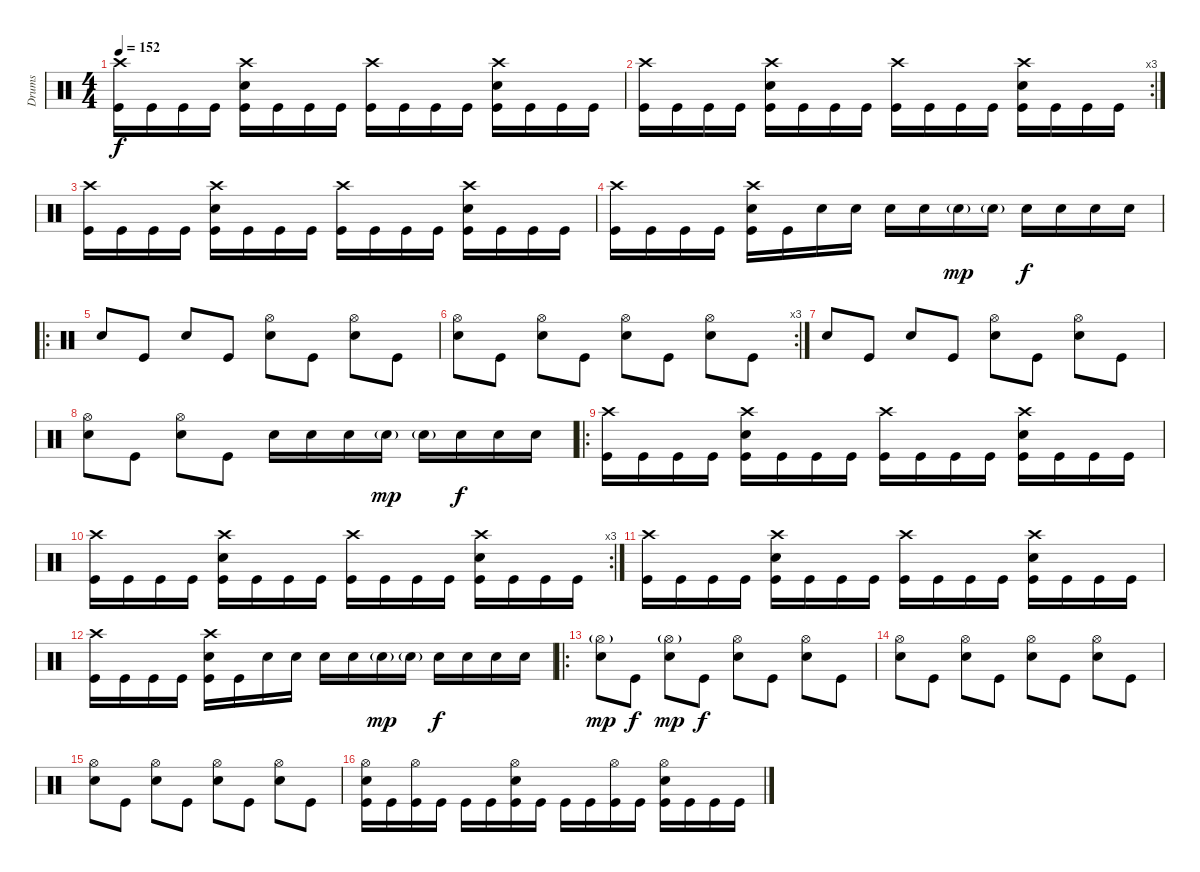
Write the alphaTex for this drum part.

\track ("Drums" "Drums") {instrument percussion}
\staff {score}
\articulation defaults
\ts (4 4)
\tempo 152
\clef neutral
\ks c
("Crash high (hit)" "Kick (hit)").16{dy f} "Kick (hit)".16 "Kick (hit)".16 "Kick (hit)".16 ("Crash high (hit)" "Electric Snare (hit)" "Kick (hit)").16 "Kick (hit)".16 "Kick (hit)".16 "Kick (hit)".16 ("Crash high (hit)" "Kick (hit)").16 "Kick (hit)".16 "Kick (hit)".16 "Kick (hit)".16 ("Crash high (hit)" "Electric Snare (hit)" "Kick (hit)").16 "Kick (hit)".16 "Kick (hit)".16 "Kick (hit)".16 |
\rc 3
("Crash high (hit)" "Kick (hit)").16 "Kick (hit)".16 "Kick (hit)".16 "Kick (hit)".16 ("Crash high (hit)" "Electric Snare (hit)" "Kick (hit)").16 "Kick (hit)".16 "Kick (hit)".16 "Kick (hit)".16 ("Crash high (hit)" "Kick (hit)").16 "Kick (hit)".16 "Kick (hit)".16 "Kick (hit)".16 ("Crash high (hit)" "Electric Snare (hit)" "Kick (hit)").16 "Kick (hit)".16 "Kick (hit)".16 "Kick (hit)".16 |
("Crash high (hit)" "Kick (hit)").16 "Kick (hit)".16 "Kick (hit)".16 "Kick (hit)".16 ("Crash high (hit)" "Electric Snare (hit)" "Kick (hit)").16 "Kick (hit)".16 "Kick (hit)".16 "Kick (hit)".16 ("Crash high (hit)" "Kick (hit)").16 "Kick (hit)".16 "Kick (hit)".16 "Kick (hit)".16 ("Crash high (hit)" "Electric Snare (hit)" "Kick (hit)").16 "Kick (hit)".16 "Kick (hit)".16 "Kick (hit)".16 |
("Crash high (hit)" "Kick (hit)").16 "Kick (hit)".16 "Kick (hit)".16 "Kick (hit)".16 ("Crash high (hit)" "Electric Snare (hit)" "Kick (hit)").16 "Kick (hit)".16 "Electric Snare (hit)".16 "Electric Snare (hit)".16 "Electric Snare (hit)".16 "Electric Snare (hit)".16 "Electric Snare (hit)"{g}.16{dy mp} "Electric Snare (hit)"{g}.16 "Electric Snare (hit)".16{dy f} "Electric Snare (hit)".16 "Electric Snare (hit)".16 "Electric Snare (hit)".16 |
\ro "Electric Snare (hit)".8 "Kick (hit)".8 "Electric Snare (hit)".8 "Kick (hit)".8
("Hi-Hat (open)" "Electric Snare (hit)").8 "Kick (hit)".8 ("Hi-Hat (open)" "Electric Snare (hit)").8 "Kick (hit)".8 |
\rc 3
("Hi-Hat (open)" "Electric Snare (hit)").8 "Kick (hit)".8 ("Hi-Hat (open)" "Electric Snare (hit)").8 "Kick (hit)".8 ("Hi-Hat (open)" "Electric Snare (hit)").8 "Kick (hit)".8 ("Hi-Hat (open)" "Electric Snare (hit)").8 "Kick (hit)".8 |
"Electric Snare (hit)".8 "Kick (hit)".8 "Electric Snare (hit)".8 "Kick (hit)".8 ("Hi-Hat (open)" "Electric Snare (hit)").8 "Kick (hit)".8 ("Hi-Hat (open)" "Electric Snare (hit)").8 "Kick (hit)".8 |
("Hi-Hat (open)" "Electric Snare (hit)").8 "Kick (hit)".8 ("Hi-Hat (open)" "Electric Snare (hit)").8 "Kick (hit)".8 "Electric Snare (hit)".16 "Electric Snare (hit)".16 "Electric Snare (hit)".16 "Electric Snare (hit)"{g}.16{dy mp} "Electric Snare (hit)"{g}.16 "Electric Snare (hit)".16{dy f} "Electric Snare (hit)".16 "Electric Snare (hit)".16 |
\ro
("Crash high (hit)" "Kick (hit)").16 "Kick (hit)".16 "Kick (hit)".16 "Kick (hit)".16 ("Crash high (hit)" "Electric Snare (hit)" "Kick (hit)").16 "Kick (hit)".16 "Kick (hit)".16 "Kick (hit)".16 ("Crash high (hit)" "Kick (hit)").16 "Kick (hit)".16 "Kick (hit)".16 "Kick (hit)".16 ("Crash high (hit)" "Electric Snare (hit)" "Kick (hit)").16 "Kick (hit)".16 "Kick (hit)".16 "Kick (hit)".16 |
\rc 3
("Crash high (hit)" "Kick (hit)").16 "Kick (hit)".16 "Kick (hit)".16 "Kick (hit)".16 ("Crash high (hit)" "Electric Snare (hit)" "Kick (hit)").16 "Kick (hit)".16 "Kick (hit)".16 "Kick (hit)".16 ("Crash high (hit)" "Kick (hit)").16 "Kick (hit)".16 "Kick (hit)".16 "Kick (hit)".16 ("Crash high (hit)" "Electric Snare (hit)" "Kick (hit)").16 "Kick (hit)".16 "Kick (hit)".16 "Kick (hit)".16 |
("Crash high (hit)" "Kick (hit)").16 "Kick (hit)".16 "Kick (hit)".16 "Kick (hit)".16 ("Crash high (hit)" "Electric Snare (hit)" "Kick (hit)").16 "Kick (hit)".16 "Kick (hit)".16 "Kick (hit)".16 ("Crash high (hit)" "Kick (hit)").16 "Kick (hit)".16 "Kick (hit)".16 "Kick (hit)".16 ("Crash high (hit)" "Electric Snare (hit)" "Kick (hit)").16 "Kick (hit)".16 "Kick (hit)".16 "Kick (hit)".16 |
("Crash high (hit)" "Kick (hit)").16 "Kick (hit)".16 "Kick (hit)".16 "Kick (hit)".16 ("Crash high (hit)" "Electric Snare (hit)" "Kick (hit)").16 "Kick (hit)".16 "Electric Snare (hit)".16 "Electric Snare (hit)".16 "Electric Snare (hit)".16 "Electric Snare (hit)".16 "Electric Snare (hit)"{g}.16{dy mp} "Electric Snare (hit)"{g}.16 "Electric Snare (hit)".16{dy f} "Electric Snare (hit)".16 "Electric Snare (hit)".16 "Electric Snare (hit)".16 |
\ro
("Hi-Hat (open)"{g} "Electric Snare (hit)").8{dy mp} "Kick (hit)".8{dy f} ("Hi-Hat (open)"{g} "Electric Snare (hit)").8{dy mp} "Kick (hit)".8{dy f} ("Hi-Hat (open)" "Electric Snare (hit)").8 "Kick (hit)".8 ("Hi-Hat (open)" "Electric Snare (hit)").8 "Kick (hit)".8 |
("Hi-Hat (open)" "Electric Snare (hit)").8 "Kick (hit)".8 ("Hi-Hat (open)" "Electric Snare (hit)").8 "Kick (hit)".8 ("Hi-Hat (open)" "Electric Snare (hit)").8 "Kick (hit)".8 ("Hi-Hat (open)" "Electric Snare (hit)").8 "Kick (hit)".8 |
("Hi-Hat (open)" "Electric Snare (hit)").8 "Kick (hit)".8 ("Hi-Hat (open)" "Electric Snare (hit)").8 "Kick (hit)".8 ("Hi-Hat (open)" "Electric Snare (hit)").8 "Kick (hit)".8 ("Hi-Hat (open)" "Electric Snare (hit)").8 "Kick (hit)".8 |
("Hi-Hat (open)" "Electric Snare (hit)" "Kick (hit)").16 "Kick (hit)".16 ("Hi-Hat (open)" "Kick (hit)").16 "Kick (hit)".16 "Kick (hit)".16 "Kick (hit)".16 ("Hi-Hat (open)" "Electric Snare (hit)" "Kick (hit)").16 "Kick (hit)".16 "Kick (hit)".16 "Kick (hit)".16 ("Hi-Hat (open)" "Kick (hit)").16 "Kick (hit)".16 ("Hi-Hat (open)" "Electric Snare (hit)" "Kick (hit)").16 "Kick (hit)".16 "Kick (hit)".16 "Kick (hit)".16
